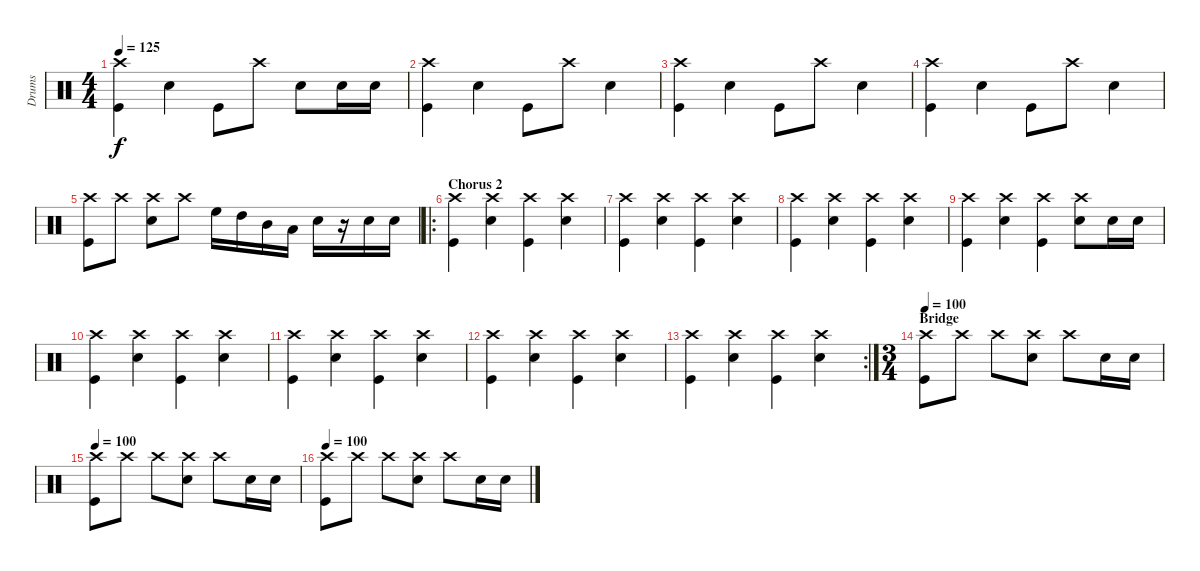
\track ("Drums" "Drums") {instrument percussion}
\staff {score}
\articulation defaults
\ts (4 4)
\tempo 125
\clef neutral
\ks c
("Crash high (hit)" "Kick (hit)").4{dy f} "Snare (hit) 2".4 "Kick (hit)".8 "Crash high (hit)".8 "Snare (hit) 2".8 "Snare (hit) 2".16 "Snare (hit) 2".16 |
("Crash high (hit)" "Kick (hit)").4 "Snare (hit) 2".4 "Kick (hit)".8 "Crash high (hit)".8 "Snare (hit) 2".4 |
("Crash high (hit)" "Kick (hit)").4 "Snare (hit) 2".4 "Kick (hit)".8 "Crash high (hit)".8 "Snare (hit) 2".4 |
("Crash high (hit)" "Kick (hit)").4 "Snare (hit) 2".4 "Kick (hit)".8 "Crash high (hit)".8 "Snare (hit) 2".4 |
("Crash high (hit)" "Kick (hit)").8 "Crash high (hit)".8 ("Crash high (hit)" "Snare (hit) 2").8 "Crash high (hit)".8 "High Floor Tom (hit)".16 "High Tom (hit)".16 "Mid Tom (hit)".16 "Low Tom (hit)".16 "Snare (hit) 2".16 r.16 "Snare (hit) 2".16 "Snare (hit) 2".16 |
\ro
\section ("" "Chorus 2")
("Crash high (hit)" "Kick (hit)").4 ("Crash high (hit)" "Snare (hit) 2").4 ("Crash high (hit)" "Kick (hit)").4 ("Crash high (hit)" "Snare (hit) 2").4 |
("Crash high (hit)" "Kick (hit)").4 ("Crash high (hit)" "Snare (hit) 2").4 ("Crash high (hit)" "Kick (hit)").4 ("Crash high (hit)" "Snare (hit) 2").4 |
("Crash high (hit)" "Kick (hit)").4 ("Crash high (hit)" "Snare (hit) 2").4 ("Crash high (hit)" "Kick (hit)").4 ("Crash high (hit)" "Snare (hit) 2").4 |
("Crash high (hit)" "Kick (hit)").4 ("Crash high (hit)" "Snare (hit) 2").4 ("Crash high (hit)" "Kick (hit)").4 ("Crash high (hit)" "Snare (hit) 2").8 "Snare (hit) 2".16 "Snare (hit) 2".16 |
("Crash high (hit)" "Kick (hit)").4 ("Crash high (hit)" "Snare (hit) 2").4 ("Crash high (hit)" "Kick (hit)").4 ("Crash high (hit)" "Snare (hit) 2").4 |
("Crash high (hit)" "Kick (hit)").4 ("Crash high (hit)" "Snare (hit) 2").4 ("Crash high (hit)" "Kick (hit)").4 ("Crash high (hit)" "Snare (hit) 2").4 |
("Crash high (hit)" "Kick (hit)").4 ("Crash high (hit)" "Snare (hit) 2").4 ("Crash high (hit)" "Kick (hit)").4 ("Crash high (hit)" "Snare (hit) 2").4 |
\rc 2
("Crash high (hit)" "Kick (hit)").4 ("Crash high (hit)" "Snare (hit) 2").4 ("Crash high (hit)" "Kick (hit)").4 ("Crash high (hit)" "Snare (hit) 2").4 |
\ts (3 4)
\section ("" "Bridge")
\tempo 100
("Crash high (hit)" "Kick (hit)").8 "Crash high (hit)".8 "Crash high (hit)".8 ("Crash high (hit)" "Snare (hit) 2").8 "Crash high (hit)".8 "Snare (hit) 2".16 "Snare (hit) 2".16 |
\tempo 100
("Crash high (hit)" "Kick (hit)").8 "Crash high (hit)".8 "Crash high (hit)".8 ("Crash high (hit)" "Snare (hit) 2").8 "Crash high (hit)".8 "Snare (hit) 2".16 "Snare (hit) 2".16 |
\tempo 100
("Crash high (hit)" "Kick (hit)").8 "Crash high (hit)".8 "Crash high (hit)".8 ("Crash high (hit)" "Snare (hit) 2").8 "Crash high (hit)".8 "Snare (hit) 2".16 "Snare (hit) 2".16
